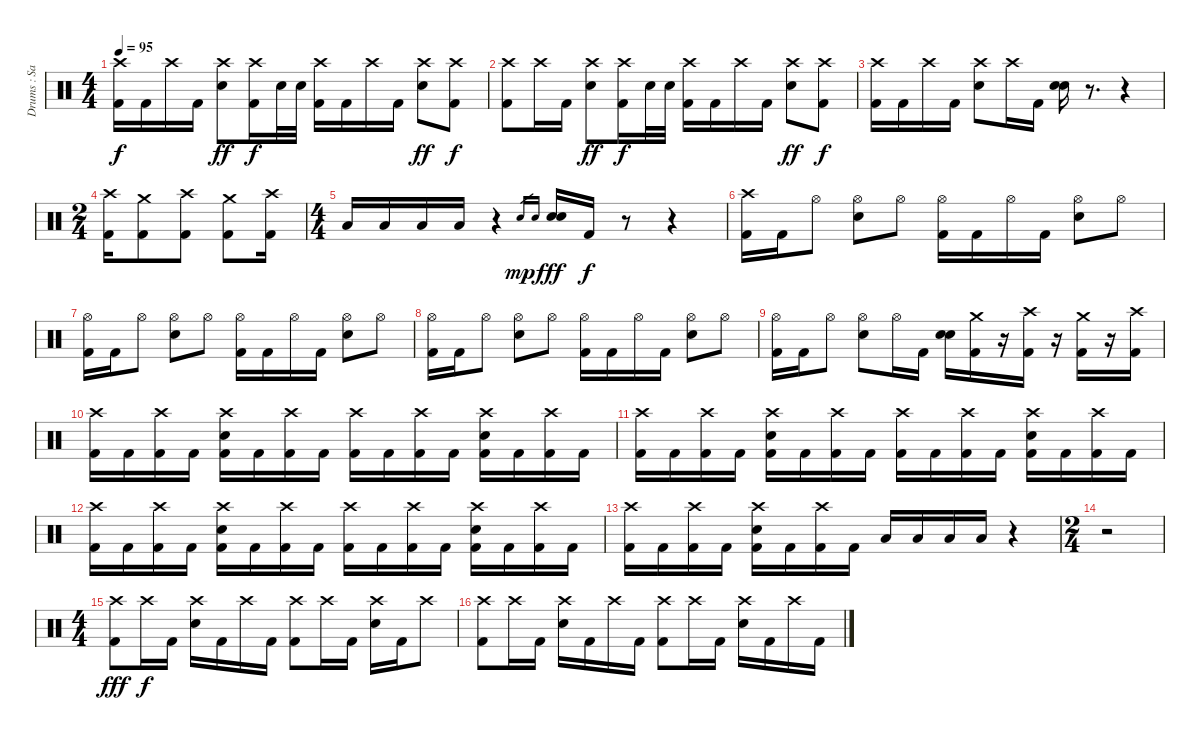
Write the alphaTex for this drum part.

\track ("Drums : Sammy Siegler" "Drums : Sa") {instrument percussion}
\staff {score}
\articulation defaults
\ts (4 4)
\tempo 95
\clef neutral
\ks c
("Crash high (hit)" "Kick (hit) 2").16{dy f} "Kick (hit) 2".16 "Crash high (hit)".16 "Kick (hit) 2".16 ("Crash high (hit)" "Electric Snare (hit)").8{dy ff} ("Crash high (hit)" "Kick (hit) 2").16{dy f} "Electric Snare (hit)".32 "Electric Snare (hit)".32 ("Crash high (hit)" "Kick (hit) 2").16 "Kick (hit) 2".16 "Crash high (hit)".16 "Kick (hit) 2".16 ("Crash high (hit)" "Electric Snare (hit)").8{dy ff} ("Crash high (hit)" "Kick (hit) 2").8{dy f} |
("Crash high (hit)" "Kick (hit) 2").8 "Crash high (hit)".16 "Kick (hit) 2".16 ("Crash high (hit)" "Electric Snare (hit)").8{dy ff} ("Crash high (hit)" "Kick (hit) 2").16{dy f} "Electric Snare (hit)".32 "Electric Snare (hit)".32 ("Crash high (hit)" "Kick (hit) 2").16 "Kick (hit) 2".16 "Crash high (hit)".16 "Kick (hit) 2".16 ("Crash high (hit)" "Electric Snare (hit)").8{dy ff} ("Crash high (hit)" "Kick (hit) 2").8{dy f} |
("Crash high (hit)" "Kick (hit) 2").16 "Kick (hit) 2".16 "Crash high (hit)".16 "Kick (hit) 2".16 ("Crash high (hit)" "Electric Snare (hit)").8 "Crash high (hit)".16 "Kick (hit) 2".16 ("Electric Snare (hit)" "Electric Snare (hit)").16 r.8{d} r.4 |
\ts (2 4)
("Crash high (hit)" "Kick (hit) 2").16 ("Crash medium (hit)" "Kick (hit) 2").8 ("Crash high (hit)" "Kick (hit) 2").8 ("Crash medium (hit)" "Kick (hit) 2").8 ("Crash high (hit)" "Kick (hit) 2").16 |
\ts (4 4)
"Low Floor Tom (hit)".16 "Low Tom (hit)".16 "Low Floor Tom (hit)".16 "Low Floor Tom (hit)".16 r.4 "Electric Snare (hit)".16{gr dy mp} "Electric Snare (hit)".16{gr} ("Electric Snare (hit)" "Electric Snare (hit)").16{dy fff} "Kick (hit) 2".16{dy f} r.8 r.4 |
("Crash high (hit)" "Kick (hit) 2").16 "Kick (hit) 2".16 "Hi-Hat (open)".8 ("Hi-Hat (open)" "Electric Snare (hit)").8 "Hi-Hat (open)".8 ("Hi-Hat (open)" "Kick (hit) 2").16 "Kick (hit) 2".16 "Hi-Hat (open)".16 "Kick (hit) 2".16 ("Hi-Hat (open)" "Electric Snare (hit)").8 "Hi-Hat (open)".8 |
("Hi-Hat (open)" "Kick (hit) 2").16 "Kick (hit) 2".16 "Hi-Hat (open)".8 ("Hi-Hat (open)" "Electric Snare (hit)").8 "Hi-Hat (open)".8 ("Hi-Hat (open)" "Kick (hit) 2").16 "Kick (hit) 2".16 "Hi-Hat (open)".16 "Kick (hit) 2".16 ("Hi-Hat (open)" "Electric Snare (hit)").8 "Hi-Hat (open)".8 |
("Hi-Hat (open)" "Kick (hit) 2").16 "Kick (hit) 2".16 "Hi-Hat (open)".8 ("Hi-Hat (open)" "Electric Snare (hit)").8 "Hi-Hat (open)".8 ("Hi-Hat (open)" "Kick (hit) 2").16 "Kick (hit) 2".16 "Hi-Hat (open)".16 "Kick (hit) 2".16 ("Hi-Hat (open)" "Electric Snare (hit)").8 "Hi-Hat (open)".8 |
("Hi-Hat (open)" "Kick (hit) 2").16 "Kick (hit) 2".16 "Hi-Hat (open)".8 ("Hi-Hat (open)" "Electric Snare (hit)").8 "Hi-Hat (open)".16 "Kick (hit) 2".16 ("Electric Snare (hit)" "Electric Snare (hit)").16{volume 16 balance 8} ("Crash medium (hit)" "Kick (hit) 2").16 r.16 ("Crash high (hit)" "Kick (hit) 2").16 r.16 ("Crash medium (hit)" "Kick (hit) 2").16 r.16 ("Crash high (hit)" "Kick (hit) 2").16 |
("Crash high (hit)" "Kick (hit) 2").16 "Kick (hit) 2".16 ("Crash high (hit)" "Kick (hit) 2").16 "Kick (hit) 2".16 ("Crash high (hit)" "Electric Snare (hit)" "Kick (hit) 2").16 "Kick (hit) 2".16 ("Crash high (hit)" "Kick (hit) 2").16 "Kick (hit) 2".16 ("Crash high (hit)" "Kick (hit) 2").16 "Kick (hit) 2".16 ("Crash high (hit)" "Kick (hit) 2").16 "Kick (hit) 2".16 ("Crash high (hit)" "Electric Snare (hit)" "Kick (hit) 2").16 "Kick (hit) 2".16 ("Crash high (hit)" "Kick (hit) 2").16 "Kick (hit) 2".16 |
("Crash high (hit)" "Kick (hit) 2").16 "Kick (hit) 2".16 ("Crash high (hit)" "Kick (hit) 2").16 "Kick (hit) 2".16 ("Crash high (hit)" "Electric Snare (hit)" "Kick (hit) 2").16 "Kick (hit) 2".16 ("Crash high (hit)" "Kick (hit) 2").16 "Kick (hit) 2".16 ("Crash high (hit)" "Kick (hit) 2").16 "Kick (hit) 2".16 ("Crash high (hit)" "Kick (hit) 2").16 "Kick (hit) 2".16 ("Crash high (hit)" "Electric Snare (hit)" "Kick (hit) 2").16 "Kick (hit) 2".16 ("Crash high (hit)" "Kick (hit) 2").16 "Kick (hit) 2".16 |
("Crash high (hit)" "Kick (hit) 2").16 "Kick (hit) 2".16 ("Crash high (hit)" "Kick (hit) 2").16 "Kick (hit) 2".16 ("Crash high (hit)" "Electric Snare (hit)" "Kick (hit) 2").16 "Kick (hit) 2".16 ("Crash high (hit)" "Kick (hit) 2").16 "Kick (hit) 2".16 ("Crash high (hit)" "Kick (hit) 2").16 "Kick (hit) 2".16 ("Crash high (hit)" "Kick (hit) 2").16 "Kick (hit) 2".16 ("Crash high (hit)" "Electric Snare (hit)" "Kick (hit) 2").16 "Kick (hit) 2".16 ("Crash high (hit)" "Kick (hit) 2").16 "Kick (hit) 2".16 |
("Crash high (hit)" "Kick (hit) 2").16 "Kick (hit) 2".16 ("Crash high (hit)" "Kick (hit) 2").16 "Kick (hit) 2".16 ("Crash high (hit)" "Electric Snare (hit)" "Kick (hit) 2").16 "Kick (hit) 2".16 ("Crash high (hit)" "Kick (hit) 2").16 "Kick (hit) 2".16 "Low Floor Tom (hit)".16{volume 13 balance 8} "Low Tom (hit)".16 "Low Floor Tom (hit)".16 "Low Floor Tom (hit)".16 r.4 |
\ts (2 4)
r.2 |
\ts (4 4)
("Crash high (hit)" "Kick (hit) 2").8{dy fff} "Crash high (hit)".16{dy f} "Kick (hit) 2".16 ("Crash high (hit)" "Electric Snare (hit)").16 "Kick (hit) 2".16 "Crash high (hit)".16 "Kick (hit) 2".16 ("Crash high (hit)" "Kick (hit) 2").8 "Crash high (hit)".16 "Kick (hit) 2".16 ("Crash high (hit)" "Electric Snare (hit)").16 "Kick (hit) 2".16 "Crash high (hit)".8 |
("Crash high (hit)" "Kick (hit) 2").8 "Crash high (hit)".16 "Kick (hit) 2".16 ("Crash high (hit)" "Electric Snare (hit)").16 "Kick (hit) 2".16 "Crash high (hit)".16 "Kick (hit) 2".16 ("Crash high (hit)" "Kick (hit) 2").8 "Crash high (hit)".16 "Kick (hit) 2".16 ("Crash high (hit)" "Electric Snare (hit)").16 "Kick (hit) 2".16 "Crash high (hit)".16 "Kick (hit) 2".16
